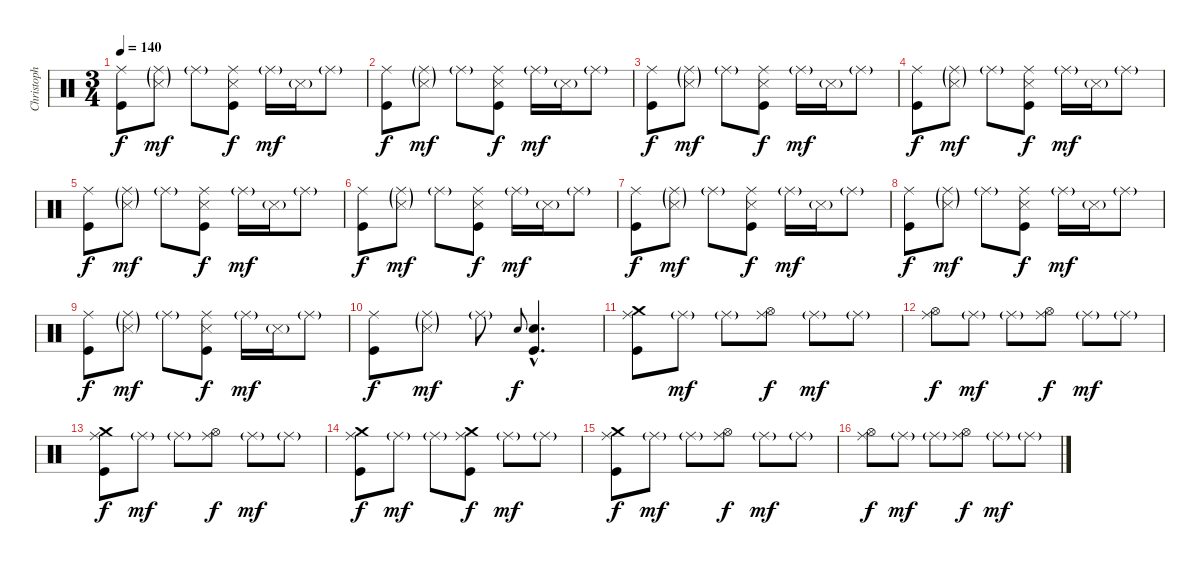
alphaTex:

\track ("Christoph \"Doom\" Schneider" "Christoph ") {instrument percussion}
\staff {score}
\articulation defaults
\ts (3 4)
\tempo 140
\clef neutral
\ks c
("Ride (middle)" "Kick (hit)").8{dy f} ("Ride (middle)"{g} "Snare (side stick) 3"{g}).8{dy mf} "Ride (middle)"{g}.8 ("Ride (middle)" "Kick (hit)" "Snare (side stick) 3").8{dy f} "Ride (middle)"{g}.16{dy mf} "Snare (side stick) 3"{g}.16 "Ride (middle)"{g}.8 |
("Ride (middle)" "Kick (hit)").8{dy f} ("Ride (middle)"{g} "Snare (side stick) 3"{g}).8{dy mf} "Ride (middle)"{g}.8 ("Ride (middle)" "Kick (hit)" "Snare (side stick) 3").8{dy f} "Ride (middle)"{g}.16{dy mf} "Snare (side stick) 3"{g}.16 "Ride (middle)"{g}.8 |
("Ride (middle)" "Kick (hit)").8{dy f} ("Ride (middle)"{g} "Snare (side stick) 3"{g}).8{dy mf} "Ride (middle)"{g}.8 ("Ride (middle)" "Kick (hit)" "Snare (side stick) 3").8{dy f} "Ride (middle)"{g}.16{dy mf} "Snare (side stick) 3"{g}.16 "Ride (middle)"{g}.8 |
("Ride (middle)" "Kick (hit)").8{dy f} ("Ride (middle)"{g} "Snare (side stick) 3"{g}).8{dy mf} "Ride (middle)"{g}.8 ("Ride (middle)" "Kick (hit)" "Snare (side stick) 3").8{dy f} "Ride (middle)"{g}.16{dy mf} "Snare (side stick) 3"{g}.16 "Ride (middle)"{g}.8 |
("Ride (middle)" "Kick (hit)").8{dy f} ("Ride (middle)"{g} "Snare (side stick) 3"{g}).8{dy mf} "Ride (middle)"{g}.8 ("Ride (middle)" "Kick (hit)" "Snare (side stick) 3").8{dy f} "Ride (middle)"{g}.16{dy mf} "Snare (side stick) 3"{g}.16 "Ride (middle)"{g}.8 |
("Ride (middle)" "Kick (hit)").8{dy f} ("Ride (middle)"{g} "Snare (side stick) 3"{g}).8{dy mf} "Ride (middle)"{g}.8 ("Ride (middle)" "Kick (hit)" "Snare (side stick) 3").8{dy f} "Ride (middle)"{g}.16{dy mf} "Snare (side stick) 3"{g}.16 "Ride (middle)"{g}.8 |
("Ride (middle)" "Kick (hit)").8{dy f} ("Ride (middle)"{g} "Snare (side stick) 3"{g}).8{dy mf} "Ride (middle)"{g}.8 ("Ride (middle)" "Kick (hit)" "Snare (side stick) 3").8{dy f} "Ride (middle)"{g}.16{dy mf} "Snare (side stick) 3"{g}.16 "Ride (middle)"{g}.8 |
("Ride (middle)" "Kick (hit)").8{dy f} ("Ride (middle)"{g} "Snare (side stick) 3"{g}).8{dy mf} "Ride (middle)"{g}.8 ("Ride (middle)" "Kick (hit)" "Snare (side stick) 3").8{dy f} "Ride (middle)"{g}.16{dy mf} "Snare (side stick) 3"{g}.16 "Ride (middle)"{g}.8 |
("Ride (middle)" "Kick (hit)").8{dy f} ("Ride (middle)"{g} "Snare (side stick) 3"{g}).8{dy mf} "Ride (middle)"{g}.8 ("Ride (middle)" "Kick (hit)" "Snare (side stick) 3").8{dy f} "Ride (middle)"{g}.16{dy mf} "Snare (side stick) 3"{g}.16 "Ride (middle)"{g}.8 |
("Ride (middle)" "Kick (hit)").8{dy f} ("Ride (middle)"{g} "Snare (side stick) 3"{g}).8{dy mf} "Ride (middle)"{g}.8 "Snare (hit)".8{gr onbeat dy f} ("Kick (hit)" "Snare (hit) 2"{hac}).4{d} |
("Ride (middle)" "Kick (hit)" "Crash medium (hit)").8 "Ride (middle)"{g}.8{dy mf} "Ride (middle)"{g}.8 ("Ride (middle)" "Hi-Hat (open)").8{dy f} "Ride (middle)"{g}.8{dy mf} "Ride (middle)"{g}.8 |
("Ride (middle)" "Hi-Hat (open)").8{dy f} "Ride (middle)"{g}.8{dy mf} "Ride (middle)"{g}.8 ("Ride (middle)" "Hi-Hat (open)").8{dy f} "Ride (middle)"{g}.8{dy mf} "Ride (middle)"{g}.8 |
("Ride (middle)" "Kick (hit)" "Crash medium (hit)").8{dy f} "Ride (middle)"{g}.8{dy mf} "Ride (middle)"{g}.8 ("Ride (middle)" "Hi-Hat (open)").8{dy f} "Ride (middle)"{g}.8{dy mf} "Ride (middle)"{g}.8 |
("Ride (middle)" "Kick (hit)" "Crash medium (hit)").8{dy f} "Ride (middle)"{g}.8{dy mf} "Ride (middle)"{g}.8 ("Ride (middle)" "Kick (hit)" "Crash medium (hit)").8{dy f} "Ride (middle)"{g}.8{dy mf} "Ride (middle)"{g}.8 |
("Ride (middle)" "Kick (hit)" "Crash medium (hit)").8{dy f} "Ride (middle)"{g}.8{dy mf} "Ride (middle)"{g}.8 ("Ride (middle)" "Hi-Hat (open)").8{dy f} "Ride (middle)"{g}.8{dy mf} "Ride (middle)"{g}.8 |
("Ride (middle)" "Hi-Hat (open)").8{dy f} "Ride (middle)"{g}.8{dy mf} "Ride (middle)"{g}.8 ("Ride (middle)" "Hi-Hat (open)").8{dy f} "Ride (middle)"{g}.8{dy mf} "Ride (middle)"{g}.8
